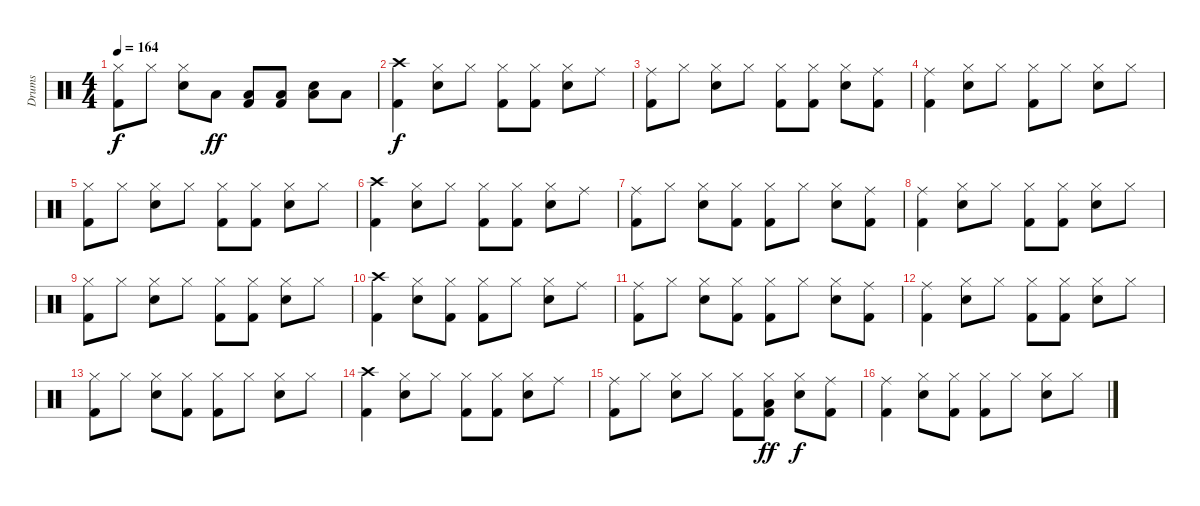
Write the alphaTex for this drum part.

\track ("Drums" "Drums") {instrument percussion}
\staff {score}
\articulation defaults
\ts (4 4)
\tempo 164
\clef neutral
\ks c
("Hi-Hat (closed)" "Kick (hit) 2").8{dy f} "Hi-Hat (closed)".8 ("Hi-Hat (closed)" "Snare (hit) 2").8 "Low Floor Tom (hit)".8{dy ff} ("Low Floor Tom (hit)" "Kick (hit) 2").8 ("Low Floor Tom (hit)" "Kick (hit) 2").8 ("Low Floor Tom (hit)" "Snare (hit) 2").8 "Low Floor Tom (hit)".8 |
("Crash high (hit)" "Kick (hit) 2").4{dy f} ("Hi-Hat (closed)" "Snare (hit) 2").8 "Hi-Hat (closed)".8 ("Hi-Hat (closed)" "Kick (hit) 2").8 ("Hi-Hat (closed)" "Kick (hit) 2").8 ("Hi-Hat (closed)" "Snare (hit) 2").8 "Ride (middle)".8 |
("Ride (middle)" "Kick (hit) 2").8 "Hi-Hat (closed)".8 ("Hi-Hat (closed)" "Snare (hit) 2").8 "Hi-Hat (closed)".8 ("Hi-Hat (closed)" "Kick (hit) 2").8 ("Hi-Hat (closed)" "Kick (hit) 2").8 ("Hi-Hat (closed)" "Snare (hit) 2").8 ("Ride (middle)" "Kick (hit) 2").8 |
("Ride (middle)" "Kick (hit) 2").4 ("Hi-Hat (closed)" "Snare (hit) 2").8 "Hi-Hat (closed)".8 ("Hi-Hat (closed)" "Kick (hit) 2").8 "Hi-Hat (closed)".8 ("Hi-Hat (closed)" "Snare (hit) 2").8 "Hi-Hat (closed)".8 |
("Hi-Hat (closed)" "Kick (hit) 2").8 "Hi-Hat (closed)".8 ("Hi-Hat (closed)" "Snare (hit) 2").8 "Hi-Hat (closed)".8 ("Hi-Hat (closed)" "Kick (hit) 2").8 ("Hi-Hat (closed)" "Kick (hit) 2").8 ("Hi-Hat (closed)" "Snare (hit) 2").8 "Hi-Hat (closed)".8 |
("Crash high (hit)" "Kick (hit) 2").4 ("Hi-Hat (closed)" "Snare (hit) 2").8 "Hi-Hat (closed)".8 ("Hi-Hat (closed)" "Kick (hit) 2").8 ("Hi-Hat (closed)" "Kick (hit) 2").8 ("Hi-Hat (closed)" "Snare (hit) 2").8 "Ride (middle)".8 |
("Ride (middle)" "Kick (hit) 2").8 "Hi-Hat (closed)".8 ("Hi-Hat (closed)" "Snare (hit) 2").8 ("Hi-Hat (closed)" "Kick (hit) 2").8 ("Hi-Hat (closed)" "Kick (hit) 2").8 "Hi-Hat (closed)".8 ("Hi-Hat (closed)" "Snare (hit) 2").8 ("Ride (middle)" "Kick (hit) 2").8 |
("Ride (middle)" "Kick (hit) 2").4 ("Hi-Hat (closed)" "Snare (hit) 2").8 "Hi-Hat (closed)".8 ("Hi-Hat (closed)" "Kick (hit) 2").8 ("Hi-Hat (closed)" "Kick (hit) 2").8 ("Hi-Hat (closed)" "Snare (hit) 2").8 "Hi-Hat (closed)".8 |
("Hi-Hat (closed)" "Kick (hit) 2").8 "Hi-Hat (closed)".8 ("Hi-Hat (closed)" "Snare (hit) 2").8 "Hi-Hat (closed)".8 ("Hi-Hat (closed)" "Kick (hit) 2").8 ("Hi-Hat (closed)" "Kick (hit) 2").8 ("Hi-Hat (closed)" "Snare (hit) 2").8 "Hi-Hat (closed)".8 |
("Crash high (hit)" "Kick (hit) 2").4 ("Hi-Hat (closed)" "Snare (hit) 2").8 ("Hi-Hat (closed)" "Kick (hit) 2").8 ("Hi-Hat (closed)" "Kick (hit) 2").8 "Hi-Hat (closed)".8 ("Hi-Hat (closed)" "Snare (hit) 2").8 "Ride (middle)".8 |
("Ride (middle)" "Kick (hit) 2").8 "Hi-Hat (closed)".8 ("Hi-Hat (closed)" "Snare (hit) 2").8 ("Hi-Hat (closed)" "Kick (hit) 2").8 ("Hi-Hat (closed)" "Kick (hit) 2").8 "Hi-Hat (closed)".8 ("Hi-Hat (closed)" "Snare (hit) 2").8 ("Ride (middle)" "Kick (hit) 2").8 |
("Ride (middle)" "Kick (hit) 2").4 ("Hi-Hat (closed)" "Snare (hit) 2").8 "Hi-Hat (closed)".8 ("Hi-Hat (closed)" "Kick (hit) 2").8 ("Hi-Hat (closed)" "Kick (hit) 2").8 ("Hi-Hat (closed)" "Snare (hit) 2").8 "Hi-Hat (closed)".8 |
("Hi-Hat (closed)" "Kick (hit) 2").8 "Hi-Hat (closed)".8 ("Hi-Hat (closed)" "Snare (hit) 2").8 ("Hi-Hat (closed)" "Kick (hit) 2").8 ("Hi-Hat (closed)" "Kick (hit) 2").8 "Hi-Hat (closed)".8 ("Hi-Hat (closed)" "Snare (hit) 2").8 "Hi-Hat (closed)".8 |
("Crash high (hit)" "Kick (hit) 2").4 ("Hi-Hat (closed)" "Snare (hit) 2").8 "Hi-Hat (closed)".8 ("Hi-Hat (closed)" "Kick (hit) 2").8 ("Hi-Hat (closed)" "Kick (hit) 2").8 ("Hi-Hat (closed)" "Snare (hit) 2").8 "Ride (middle)".8 |
("Ride (middle)" "Kick (hit) 2").8 "Hi-Hat (closed)".8 ("Hi-Hat (closed)" "Snare (hit) 2").8 "Hi-Hat (closed)".8 ("Hi-Hat (closed)" "Kick (hit) 2").8 ("Hi-Hat (closed)" "Low Floor Tom (hit)" "Kick (hit) 2").8{dy ff} ("Hi-Hat (closed)" "Snare (hit) 2").8{dy f} ("Ride (middle)" "Kick (hit) 2").8 |
("Ride (middle)" "Kick (hit) 2").4 ("Hi-Hat (closed)" "Snare (hit) 2").8 ("Hi-Hat (closed)" "Kick (hit) 2").8 ("Hi-Hat (closed)" "Kick (hit) 2").8 "Hi-Hat (closed)".8 ("Hi-Hat (closed)" "Snare (hit) 2").8 "Hi-Hat (closed)".8
